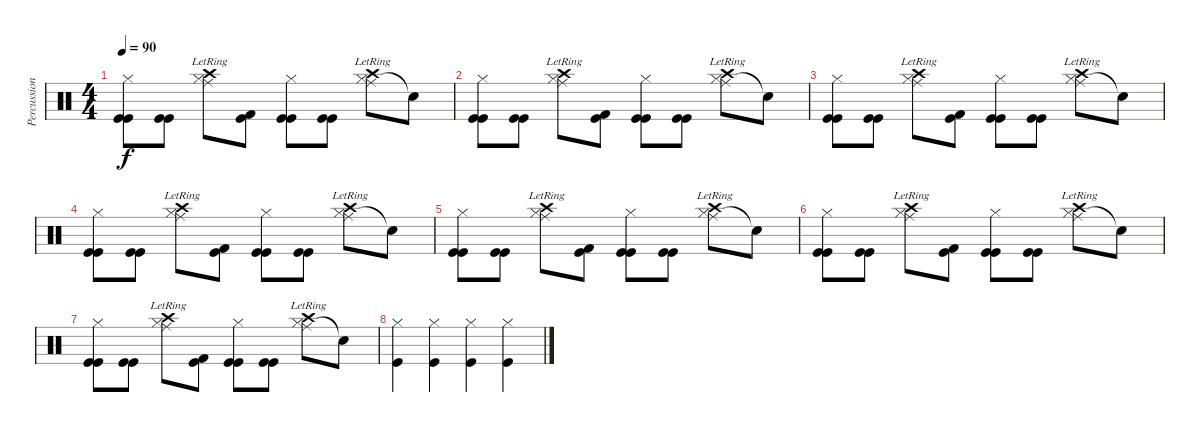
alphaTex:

\track ("Percussions" "Percussion") {instrument percussion}
\staff {score}
\articulation defaults
\ts (4 4)
\tempo 90
\clef neutral
\ks c
("Hi-Hat (closed)" "Kick (hit)" "Kick (hit)").8{dy f} ("Kick (hit)" "Kick (hit)").8 ("Hi-Hat (closed)" "Crash high (hit)"{lr} "Ride (middle)").8 ("Kick (hit) 2" "Kick (hit)").8 ("Hi-Hat (closed)" "Kick (hit)" "Kick (hit)").8 ("Kick (hit)" "Kick (hit)").8 ("Hi-Hat (closed)" "Crash high (hit)"{lr} "Ride (middle)").8 "Snare (hit)"{t}.8 |
("Hi-Hat (closed)" "Kick (hit)" "Kick (hit)").8 ("Kick (hit)" "Kick (hit)").8 ("Hi-Hat (closed)" "Crash high (hit)"{lr} "Ride (middle)").8 ("Kick (hit) 2" "Kick (hit)").8 ("Hi-Hat (closed)" "Kick (hit)" "Kick (hit)").8 ("Kick (hit)" "Kick (hit)").8 ("Hi-Hat (closed)" "Crash high (hit)"{lr} "Ride (middle)").8 "Snare (hit)"{t}.8 |
("Hi-Hat (closed)" "Kick (hit)" "Kick (hit)").8 ("Kick (hit)" "Kick (hit)").8 ("Hi-Hat (closed)" "Crash high (hit)"{lr} "Ride (middle)").8 ("Kick (hit) 2" "Kick (hit)").8 ("Hi-Hat (closed)" "Kick (hit)" "Kick (hit)").8 ("Kick (hit)" "Kick (hit)").8 ("Hi-Hat (closed)" "Crash high (hit)"{lr} "Ride (middle)").8 "Snare (hit)"{t}.8 |
("Hi-Hat (closed)" "Kick (hit)" "Kick (hit)").8 ("Kick (hit)" "Kick (hit)").8 ("Hi-Hat (closed)" "Crash high (hit)"{lr} "Ride (middle)").8 ("Kick (hit) 2" "Kick (hit)").8 ("Hi-Hat (closed)" "Kick (hit)" "Kick (hit)").8 ("Kick (hit)" "Kick (hit)").8 ("Hi-Hat (closed)" "Crash high (hit)"{lr} "Ride (middle)").8 "Snare (hit)"{t}.8 |
("Hi-Hat (closed)" "Kick (hit)" "Kick (hit)").8 ("Kick (hit)" "Kick (hit)").8 ("Hi-Hat (closed)" "Crash high (hit)"{lr} "Ride (middle)").8 ("Kick (hit) 2" "Kick (hit)").8 ("Hi-Hat (closed)" "Kick (hit)" "Kick (hit)").8 ("Kick (hit)" "Kick (hit)").8 ("Hi-Hat (closed)" "Crash high (hit)"{lr} "Ride (middle)").8 "Snare (hit)"{t}.8 |
("Hi-Hat (closed)" "Kick (hit)" "Kick (hit)").8 ("Kick (hit)" "Kick (hit)").8 ("Hi-Hat (closed)" "Crash high (hit)"{lr} "Ride (middle)").8 ("Kick (hit) 2" "Kick (hit)").8 ("Hi-Hat (closed)" "Kick (hit)" "Kick (hit)").8 ("Kick (hit)" "Kick (hit)").8 ("Hi-Hat (closed)" "Crash high (hit)"{lr} "Ride (middle)").8 "Snare (hit)"{t}.8 |
("Hi-Hat (closed)" "Kick (hit)" "Kick (hit)").8 ("Kick (hit)" "Kick (hit)").8 ("Hi-Hat (closed)" "Crash high (hit)"{lr} "Ride (middle)").8 ("Kick (hit) 2" "Kick (hit)").8 ("Hi-Hat (closed)" "Kick (hit)" "Kick (hit)").8 ("Kick (hit)" "Kick (hit)").8 ("Hi-Hat (closed)" "Crash high (hit)"{lr} "Ride (middle)").8 "Snare (hit)"{t}.8 |
("Hi-Hat (closed)" "Kick (hit)").4{volume 2} ("Hi-Hat (closed)" "Kick (hit)").4 ("Hi-Hat (closed)" "Kick (hit)").4 ("Hi-Hat (closed)" "Kick (hit)").4
